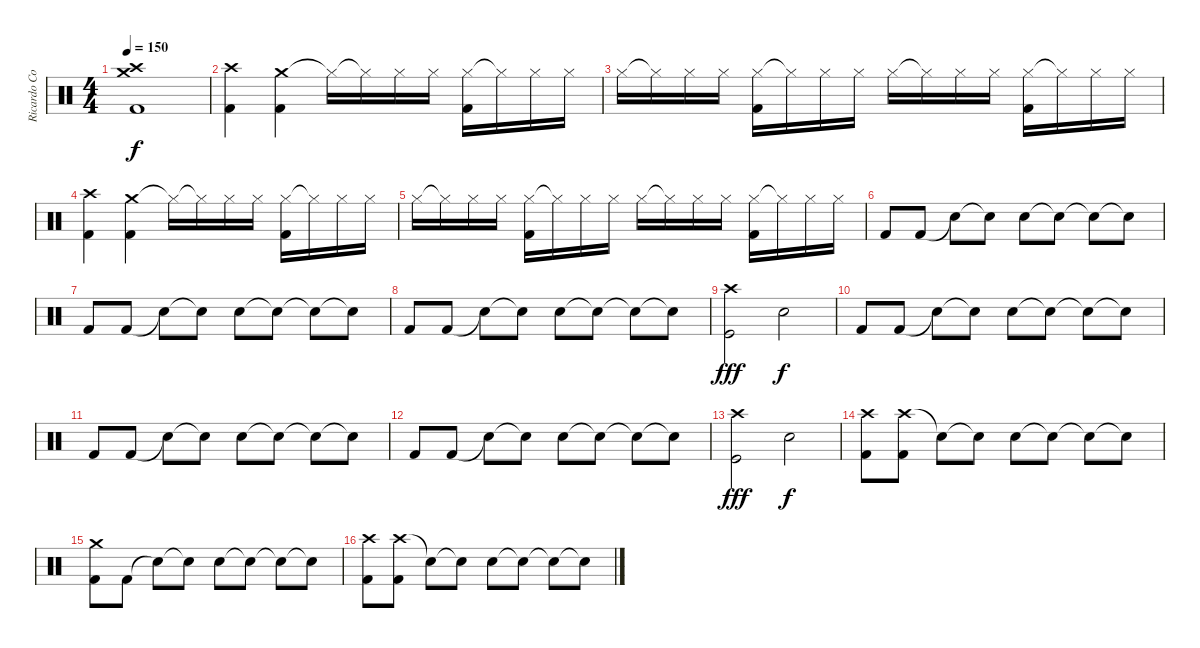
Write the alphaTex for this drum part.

\track ("Ricardo Confessori" "Ricardo Co") {instrument percussion}
\staff {score}
\articulation defaults
\ts (4 4)
\tempo 150
\clef neutral
\ks c
("Crash high (hit)" "Crash medium (hit)" "Kick (hit) 2").1{dy f} |
("Crash high (hit)" "Kick (hit) 2").4 ("Crash medium (hit)" "Kick (hit) 2").4 "Hi-Hat (closed)"{t}.16 "Hi-Hat (closed)"{t}.16 "Hi-Hat (closed)".16 "Hi-Hat (closed)".16 ("Hi-Hat (closed)" "Kick (hit) 2").16 "Hi-Hat (closed)"{t}.16 "Hi-Hat (closed)".16 "Hi-Hat (closed)".16 |
"Hi-Hat (closed)".16 "Hi-Hat (closed)"{t}.16 "Hi-Hat (closed)".16 "Hi-Hat (closed)".16 ("Hi-Hat (closed)" "Kick (hit) 2").16 "Hi-Hat (closed)"{t}.16 "Hi-Hat (closed)".16 "Hi-Hat (closed)".16 "Hi-Hat (closed)".16 "Hi-Hat (closed)"{t}.16 "Hi-Hat (closed)".16 "Hi-Hat (closed)".16 ("Hi-Hat (closed)" "Kick (hit) 2").16 "Hi-Hat (closed)"{t}.16 "Hi-Hat (closed)".16 "Hi-Hat (closed)".16 |
("Crash high (hit)" "Kick (hit) 2").4 ("Crash medium (hit)" "Kick (hit) 2").4 "Hi-Hat (closed)"{t}.16 "Hi-Hat (closed)"{t}.16 "Hi-Hat (closed)".16 "Hi-Hat (closed)".16 ("Hi-Hat (closed)" "Kick (hit) 2").16 "Hi-Hat (closed)"{t}.16 "Hi-Hat (closed)".16 "Hi-Hat (closed)".16 |
"Hi-Hat (closed)".16 "Hi-Hat (closed)"{t}.16 "Hi-Hat (closed)".16 "Hi-Hat (closed)".16 ("Hi-Hat (closed)" "Kick (hit) 2").16 "Hi-Hat (closed)"{t}.16 "Hi-Hat (closed)".16 "Hi-Hat (closed)".16 "Hi-Hat (closed)".16 "Hi-Hat (closed)"{t}.16 "Hi-Hat (closed)".16 "Hi-Hat (closed)".16 ("Hi-Hat (closed)" "Kick (hit) 2").16 "Hi-Hat (closed)"{t}.16 "Hi-Hat (closed)".16 "Hi-Hat (closed)".16 |
"Kick (hit) 2".8 "Kick (hit) 2".8 "Snare (hit)"{t}.8 "Snare (hit)"{t}.8 "Electric Snare (hit)".8 "Snare (hit)"{t}.8 "Snare (hit)"{t}.8 "Snare (hit)"{t}.8 |
"Kick (hit) 2".8 "Kick (hit) 2".8 "Snare (hit)"{t}.8 "Snare (hit)"{t}.8 "Electric Snare (hit)".8 "Snare (hit)"{t}.8 "Snare (hit)"{t}.8 "Snare (hit)"{t}.8 |
"Kick (hit) 2".8 "Kick (hit) 2".8 "Snare (hit)"{t}.8 "Snare (hit)"{t}.8 "Electric Snare (hit)".8 "Snare (hit)"{t}.8 "Snare (hit)"{t}.8 "Snare (hit)"{t}.8 |
("Crash high (hit)" "Kick (hit)").2{dy fff} "Electric Snare (hit)".2{dy f} |
"Kick (hit) 2".8 "Kick (hit) 2".8 "Snare (hit)"{t}.8 "Snare (hit)"{t}.8 "Electric Snare (hit)".8 "Snare (hit)"{t}.8 "Snare (hit)"{t}.8 "Snare (hit)"{t}.8 |
"Kick (hit) 2".8 "Kick (hit) 2".8 "Snare (hit)"{t}.8 "Snare (hit)"{t}.8 "Electric Snare (hit)".8 "Snare (hit)"{t}.8 "Snare (hit)"{t}.8 "Snare (hit)"{t}.8 |
"Kick (hit) 2".8 "Kick (hit) 2".8 "Snare (hit)"{t}.8 "Snare (hit)"{t}.8 "Electric Snare (hit)".8 "Snare (hit)"{t}.8 "Snare (hit)"{t}.8 "Snare (hit)"{t}.8 |
("Crash high (hit)" "Kick (hit)").2{dy fff} "Electric Snare (hit)".2{dy f} |
("Crash high (hit)" "Kick (hit) 2").8 ("Crash high (hit)" "Kick (hit) 2").8 "Snare (hit)"{t}.8 "Snare (hit)"{t}.8 "Electric Snare (hit)".8 "Snare (hit)"{t}.8 "Snare (hit)"{t}.8 "Snare (hit)"{t}.8 |
("Crash medium (hit)" "Kick (hit) 2").8 "Kick (hit) 2".8 "Snare (hit)"{t}.8 "Snare (hit)"{t}.8 "Electric Snare (hit)".8 "Snare (hit)"{t}.8 "Snare (hit)"{t}.8 "Snare (hit)"{t}.8 |
("Crash high (hit)" "Kick (hit) 2").8 ("Crash high (hit)" "Kick (hit) 2").8 "Snare (hit)"{t}.8 "Snare (hit)"{t}.8 "Electric Snare (hit)".8 "Snare (hit)"{t}.8 "Snare (hit)"{t}.8 "Snare (hit)"{t}.8
